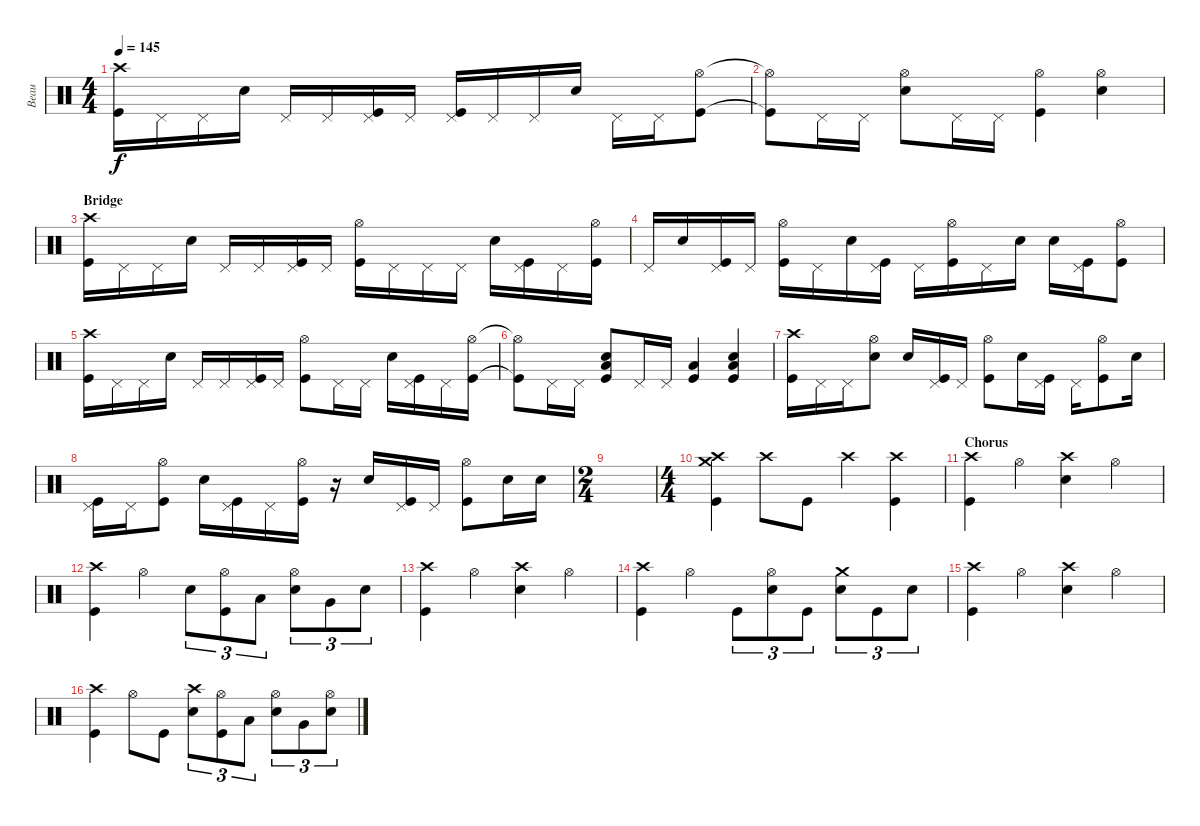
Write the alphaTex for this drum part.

\track ("Beau" "Beau") {instrument percussion}
\staff {score}
\articulation defaults
\ts (4 4)
\tempo 145
\clef neutral
\ks c
("Kick (hit)" "Crash high (hit)").16{dy f} "Pedal Hi-Hat (hit)".16 "Pedal Hi-Hat (hit)".16 "Snare (hit) 2".16 "Pedal Hi-Hat (hit)".16 "Pedal Hi-Hat (hit)".16 ("Kick (hit)" "Pedal Hi-Hat (hit)").16 "Pedal Hi-Hat (hit)".16 ("Kick (hit)" "Pedal Hi-Hat (hit)").16 "Pedal Hi-Hat (hit)".16 "Pedal Hi-Hat (hit)".16 "Snare (hit) 2".16 "Pedal Hi-Hat (hit)".16 "Pedal Hi-Hat (hit)".16 ("Kick (hit)" "Hi-Hat (open)").8 |
("Kick (hit)"{t} "Hi-Hat (open)"{t}).8 "Pedal Hi-Hat (hit)".16 "Pedal Hi-Hat (hit)".16 ("Snare (hit) 2" "Hi-Hat (open)").8 "Pedal Hi-Hat (hit)".16 "Pedal Hi-Hat (hit)".16 ("Kick (hit)" "Hi-Hat (open)").4 ("Snare (hit) 2" "Hi-Hat (open)").4 |
\section ("" "Bridge")
("Kick (hit)" "Crash high (hit)").16 "Pedal Hi-Hat (hit)".16 "Pedal Hi-Hat (hit)".16 "Snare (hit) 2".16 "Pedal Hi-Hat (hit)".16 "Pedal Hi-Hat (hit)".16 ("Kick (hit)" "Pedal Hi-Hat (hit)").16 "Pedal Hi-Hat (hit)".16 ("Kick (hit)" "Hi-Hat (open)").16 "Pedal Hi-Hat (hit)".16 "Pedal Hi-Hat (hit)".16 "Pedal Hi-Hat (hit)".16 "Snare (hit) 2".16 ("Kick (hit)" "Pedal Hi-Hat (hit)").16 "Pedal Hi-Hat (hit)".16 ("Kick (hit)" "Hi-Hat (open)").16 |
"Pedal Hi-Hat (hit)".16 "Snare (hit) 2".16 ("Kick (hit)" "Pedal Hi-Hat (hit)").16 "Pedal Hi-Hat (hit)".16 ("Kick (hit)" "Hi-Hat (open)").16 "Pedal Hi-Hat (hit)".16 "Snare (hit) 2".16 ("Kick (hit)" "Pedal Hi-Hat (hit)").16 "Pedal Hi-Hat (hit)".16 ("Kick (hit)" "Hi-Hat (open)").16 "Pedal Hi-Hat (hit)".16 "Snare (hit) 2".16 "Snare (hit) 2".16 ("Kick (hit)" "Pedal Hi-Hat (hit)").16 ("Kick (hit)" "Hi-Hat (open)").8 |
("Kick (hit)" "Crash high (hit)").16 "Pedal Hi-Hat (hit)".16 "Pedal Hi-Hat (hit)".16 "Snare (hit) 2".16 "Pedal Hi-Hat (hit)".16 "Pedal Hi-Hat (hit)".16 ("Kick (hit)" "Pedal Hi-Hat (hit)").16 "Pedal Hi-Hat (hit)".16 ("Kick (hit)" "Hi-Hat (open)").8 "Pedal Hi-Hat (hit)".16 "Pedal Hi-Hat (hit)".16 "Snare (hit) 2".16 ("Kick (hit)" "Pedal Hi-Hat (hit)").16 "Pedal Hi-Hat (hit)".16 ("Kick (hit)" "Hi-Hat (open)").16 |
("Kick (hit)"{t} "Hi-Hat (open)"{t}).8 "Pedal Hi-Hat (hit)".16 "Pedal Hi-Hat (hit)".16 ("Kick (hit)" "Snare (hit) 2" "Low Floor Tom (hit)").8 "Pedal Hi-Hat (hit)".16 "Pedal Hi-Hat (hit)".16 ("Kick (hit)" "Low Floor Tom (hit)").4 ("Kick (hit)" "Snare (hit) 2" "Low Floor Tom (hit)").4 |
("Kick (hit)" "Crash high (hit)").16 "Pedal Hi-Hat (hit)".16 "Pedal Hi-Hat (hit)".16 ("Snare (hit) 2" "Hi-Hat (open)").8 "Snare (hit) 2".16 ("Kick (hit)" "Pedal Hi-Hat (hit)").16 "Pedal Hi-Hat (hit)".16 ("Kick (hit)" "Hi-Hat (open)").8 "Snare (hit) 2".16 ("Kick (hit)" "Pedal Hi-Hat (hit)").16 "Pedal Hi-Hat (hit)".16 ("Kick (hit)" "Hi-Hat (open)").8 "Snare (hit) 2".16 |
("Kick (hit)" "Pedal Hi-Hat (hit)").16 "Pedal Hi-Hat (hit)".16 ("Kick (hit)" "Hi-Hat (open)").8 "Snare (hit) 2".16 ("Kick (hit)" "Pedal Hi-Hat (hit)").16 "Pedal Hi-Hat (hit)".16 ("Kick (hit)" "Hi-Hat (open)").16 r.16 "Snare (hit) 2".16 ("Kick (hit)" "Pedal Hi-Hat (hit)").16 "Pedal Hi-Hat (hit)".16 ("Kick (hit)" "Hi-Hat (open)").8 "Snare (hit) 2".16 "Snare (hit) 2".16 |
\ts (2 4)
|
\ts (4 4)
("Kick (hit)" "Crash medium (hit)" "Crash high (hit)").4 "Crash high (hit)".8 "Kick (hit)".8 "Crash high (hit)".4 ("Kick (hit)" "Crash high (hit)").4 |
\section ("" "Chorus")
("Kick (hit)" "Crash high (hit)").4 "Hi-Hat (open)".4 ("Snare (hit) 2" "Crash high (hit)").4 "Hi-Hat (open)".4 |
("Kick (hit)" "Crash high (hit)").4 "Hi-Hat (open)".4 "Snare (hit) 2".8{tu (3 2)} ("Kick (hit)" "Hi-Hat (open)").8{tu (3 2)} "Low Tom (hit)".8{tu (3 2)} ("Snare (hit) 2" "Hi-Hat (open)").8{tu (3 2)} "Very Low Tom (hit)".8{tu (3 2)} "Snare (hit) 2".8{tu (3 2)} |
("Kick (hit)" "Crash high (hit)").4 "Hi-Hat (open)".4 ("Snare (hit) 2" "Crash high (hit)").4 "Hi-Hat (open)".4 |
("Kick (hit)" "Crash high (hit)").4 "Hi-Hat (open)".4 "Kick (hit)".8{tu (3 2)} ("Snare (hit) 2" "Hi-Hat (open)").8{tu (3 2)} "Kick (hit)".8{tu (3 2)} ("Snare (hit) 2" "Crash medium (hit)").8{tu (3 2)} "Kick (hit)".8{tu (3 2)} "Snare (hit) 2".8{tu (3 2)} |
("Kick (hit)" "Crash high (hit)").4 "Hi-Hat (open)".4 ("Snare (hit) 2" "Crash high (hit)").4 "Hi-Hat (open)".4 |
("Kick (hit)" "Crash high (hit)").4 "Hi-Hat (open)".8 "Kick (hit)".8 ("Snare (hit) 2" "Crash high (hit)").8{tu (3 2)} ("Kick (hit)" "Hi-Hat (open)").8{tu (3 2)} "Low Tom (hit)".8{tu (3 2)} ("Snare (hit) 2" "Hi-Hat (open)").8{tu (3 2)} "Very Low Tom (hit)".8{tu (3 2)} ("Snare (hit) 2" "Hi-Hat (open)").8{tu (3 2)}
